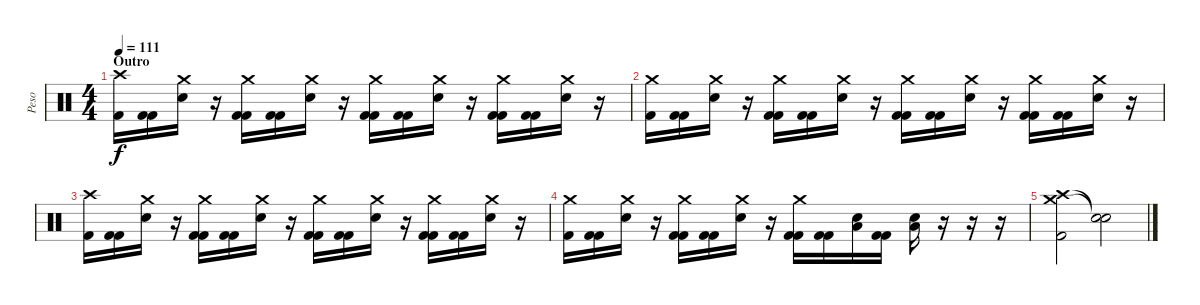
\track ("Peso" "Peso") {instrument percussion}
\staff {score}
\articulation defaults
\ts (4 4)
\section ("" "Outro")
\tempo 111
\clef neutral
\ks c
("Crash high (hit)" "Kick (hit) 2").16{dy f} ("Kick (hit) 2" "Kick (hit) 2").16 ("Crash medium (hit)" "Snare (hit) 2").16 r.16 ("Crash medium (hit)" "Kick (hit) 2" "Kick (hit) 2").16 ("Kick (hit) 2" "Kick (hit) 2").16 ("Crash medium (hit)" "Snare (hit) 2").16 r.16 ("Crash medium (hit)" "Kick (hit) 2" "Kick (hit) 2").16 ("Kick (hit) 2" "Kick (hit) 2").16 ("Crash medium (hit)" "Snare (hit) 2").16 r.16 ("Crash medium (hit)" "Kick (hit) 2" "Kick (hit) 2").16 ("Kick (hit) 2" "Kick (hit) 2").16 ("Crash medium (hit)" "Snare (hit) 2").16 r.16 |
("Crash medium (hit)" "Kick (hit) 2").16 ("Kick (hit) 2" "Kick (hit) 2").16 ("Crash medium (hit)" "Snare (hit) 2").16 r.16 ("Crash medium (hit)" "Kick (hit) 2" "Kick (hit) 2").16 ("Kick (hit) 2" "Kick (hit) 2").16 ("Crash medium (hit)" "Snare (hit) 2").16 r.16 ("Crash medium (hit)" "Kick (hit) 2" "Kick (hit) 2").16 ("Kick (hit) 2" "Kick (hit) 2").16 ("Crash medium (hit)" "Snare (hit) 2").16 r.16 ("Crash medium (hit)" "Kick (hit) 2" "Kick (hit) 2").16 ("Kick (hit) 2" "Kick (hit) 2").16 ("Crash medium (hit)" "Snare (hit) 2").16 r.16 |
("Crash high (hit)" "Kick (hit) 2").16 ("Kick (hit) 2" "Kick (hit) 2").16 ("Crash medium (hit)" "Snare (hit) 2").16 r.16 ("Crash medium (hit)" "Kick (hit) 2" "Kick (hit) 2").16 ("Kick (hit) 2" "Kick (hit) 2").16 ("Crash medium (hit)" "Snare (hit) 2").16 r.16 ("Crash medium (hit)" "Kick (hit) 2" "Kick (hit) 2").16 ("Kick (hit) 2" "Kick (hit) 2").16 ("Crash medium (hit)" "Snare (hit) 2").16 r.16 ("Crash medium (hit)" "Kick (hit) 2" "Kick (hit) 2").16 ("Kick (hit) 2" "Kick (hit) 2").16 ("Crash medium (hit)" "Snare (hit) 2").16 r.16 |
("Crash medium (hit)" "Kick (hit) 2").16 ("Kick (hit) 2" "Kick (hit) 2").16 ("Crash medium (hit)" "Snare (hit) 2").16 r.16 ("Crash medium (hit)" "Kick (hit) 2" "Kick (hit) 2").16 ("Kick (hit) 2" "Kick (hit) 2").16 ("Crash medium (hit)" "Snare (hit) 2").16 r.16 ("Crash medium (hit)" "Kick (hit) 2" "Kick (hit) 2").16 ("Kick (hit) 2" "Kick (hit) 2").16 ("Low Floor Tom (hit)" "Snare (hit) 2").16 ("Kick (hit) 2" "Kick (hit) 2").16 ("Low Floor Tom (hit)" "Snare (hit) 2").16 r.16 r.16 r.16 |
("Crash high (hit)" "Crash medium (hit)" "Kick (hit) 2").2 ("Snare (hit)"{t} "Snare (hit)"{t}).2
